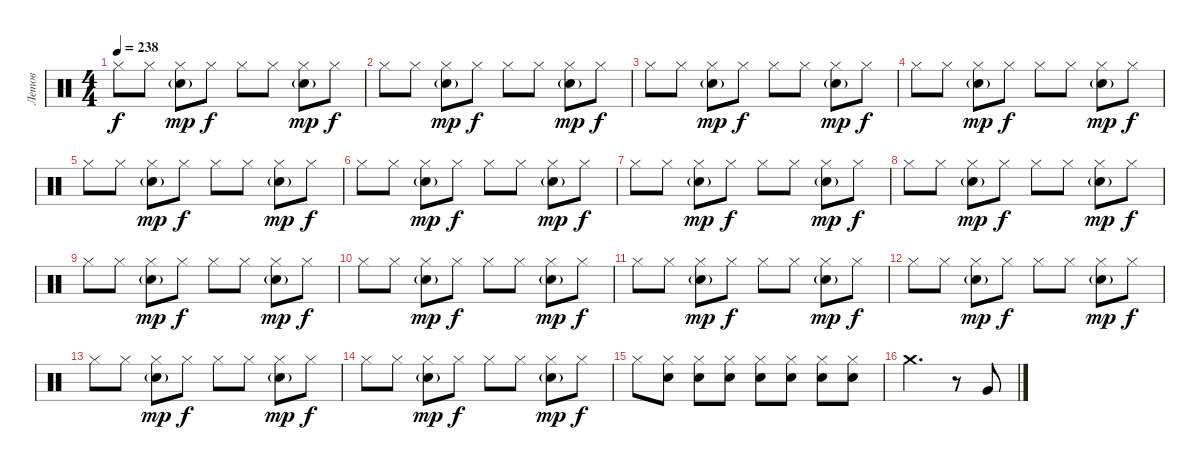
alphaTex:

\track ("Летов" "Летов") {instrument percussion}
\staff {score}
\articulation defaults
\ts (4 4)
\tempo 238
\clef neutral
\ks c "Hi-Hat (closed)".8{dy f} "Hi-Hat (closed)".8
("Hi-Hat (closed)" "Snare (hit) 2"{g}).8{dy mp} "Hi-Hat (closed)".8{dy f} "Hi-Hat (closed)".8 "Hi-Hat (closed)".8 ("Hi-Hat (closed)" "Snare (hit) 2"{g}).8{dy mp} "Hi-Hat (closed)".8{dy f} |
"Hi-Hat (closed)".8 "Hi-Hat (closed)".8 ("Hi-Hat (closed)" "Snare (hit) 2"{g}).8{dy mp} "Hi-Hat (closed)".8{dy f} "Hi-Hat (closed)".8 "Hi-Hat (closed)".8 ("Hi-Hat (closed)" "Snare (hit) 2"{g}).8{dy mp} "Hi-Hat (closed)".8{dy f} |
"Hi-Hat (closed)".8 "Hi-Hat (closed)".8 ("Hi-Hat (closed)" "Snare (hit) 2"{g}).8{dy mp} "Hi-Hat (closed)".8{dy f} "Hi-Hat (closed)".8 "Hi-Hat (closed)".8 ("Hi-Hat (closed)" "Snare (hit) 2"{g}).8{dy mp} "Hi-Hat (closed)".8{dy f} |
"Hi-Hat (closed)".8 "Hi-Hat (closed)".8 ("Hi-Hat (closed)" "Snare (hit) 2"{g}).8{dy mp} "Hi-Hat (closed)".8{dy f} "Hi-Hat (closed)".8 "Hi-Hat (closed)".8 ("Hi-Hat (closed)" "Snare (hit) 2"{g}).8{dy mp} "Hi-Hat (closed)".8{dy f} |
"Hi-Hat (closed)".8 "Hi-Hat (closed)".8 ("Hi-Hat (closed)" "Snare (hit) 2"{g}).8{dy mp} "Hi-Hat (closed)".8{dy f} "Hi-Hat (closed)".8 "Hi-Hat (closed)".8 ("Hi-Hat (closed)" "Snare (hit) 2"{g}).8{dy mp} "Hi-Hat (closed)".8{dy f} |
"Hi-Hat (closed)".8 "Hi-Hat (closed)".8 ("Hi-Hat (closed)" "Snare (hit) 2"{g}).8{dy mp} "Hi-Hat (closed)".8{dy f} "Hi-Hat (closed)".8 "Hi-Hat (closed)".8 ("Hi-Hat (closed)" "Snare (hit) 2"{g}).8{dy mp} "Hi-Hat (closed)".8{dy f} |
"Hi-Hat (closed)".8 "Hi-Hat (closed)".8 ("Hi-Hat (closed)" "Snare (hit) 2"{g}).8{dy mp} "Hi-Hat (closed)".8{dy f} "Hi-Hat (closed)".8 "Hi-Hat (closed)".8 ("Hi-Hat (closed)" "Snare (hit) 2"{g}).8{dy mp} "Hi-Hat (closed)".8{dy f} |
"Hi-Hat (closed)".8 "Hi-Hat (closed)".8 ("Hi-Hat (closed)" "Snare (hit) 2"{g}).8{dy mp} "Hi-Hat (closed)".8{dy f} "Hi-Hat (closed)".8 "Hi-Hat (closed)".8 ("Hi-Hat (closed)" "Snare (hit) 2"{g}).8{dy mp} "Hi-Hat (closed)".8{dy f} |
"Hi-Hat (closed)".8 "Hi-Hat (closed)".8 ("Hi-Hat (closed)" "Snare (hit) 2"{g}).8{dy mp} "Hi-Hat (closed)".8{dy f} "Hi-Hat (closed)".8 "Hi-Hat (closed)".8 ("Hi-Hat (closed)" "Snare (hit) 2"{g}).8{dy mp} "Hi-Hat (closed)".8{dy f} |
"Hi-Hat (closed)".8 "Hi-Hat (closed)".8 ("Hi-Hat (closed)" "Snare (hit) 2"{g}).8{dy mp} "Hi-Hat (closed)".8{dy f} "Hi-Hat (closed)".8 "Hi-Hat (closed)".8 ("Hi-Hat (closed)" "Snare (hit) 2"{g}).8{dy mp} "Hi-Hat (closed)".8{dy f} |
"Hi-Hat (closed)".8 "Hi-Hat (closed)".8 ("Hi-Hat (closed)" "Snare (hit) 2"{g}).8{dy mp} "Hi-Hat (closed)".8{dy f} "Hi-Hat (closed)".8 "Hi-Hat (closed)".8 ("Hi-Hat (closed)" "Snare (hit) 2"{g}).8{dy mp} "Hi-Hat (closed)".8{dy f} |
"Hi-Hat (closed)".8 "Hi-Hat (closed)".8 ("Hi-Hat (closed)" "Snare (hit) 2"{g}).8{dy mp} "Hi-Hat (closed)".8{dy f} "Hi-Hat (closed)".8 "Hi-Hat (closed)".8 ("Hi-Hat (closed)" "Snare (hit) 2"{g}).8{dy mp} "Hi-Hat (closed)".8{dy f} |
"Hi-Hat (closed)".8 "Hi-Hat (closed)".8 ("Hi-Hat (closed)" "Snare (hit) 2"{g}).8{dy mp} "Hi-Hat (closed)".8{dy f} "Hi-Hat (closed)".8 "Hi-Hat (closed)".8 ("Hi-Hat (closed)" "Snare (hit) 2"{g}).8{dy mp} "Hi-Hat (closed)".8{dy f} |
"Hi-Hat (closed)".8 "Hi-Hat (closed)".8 ("Hi-Hat (closed)" "Snare (hit) 2"{g}).8{dy mp} "Hi-Hat (closed)".8{dy f} "Hi-Hat (closed)".8 "Hi-Hat (closed)".8 ("Hi-Hat (closed)" "Snare (hit) 2"{g}).8{dy mp} "Hi-Hat (closed)".8{dy f} |
"Hi-Hat (closed)".8 ("Hi-Hat (closed)" "Snare (hit) 2").8 ("Hi-Hat (closed)" "Snare (hit) 2").8 ("Hi-Hat (closed)" "Snare (hit) 2").8 ("Hi-Hat (closed)" "Snare (hit) 2").8 ("Hi-Hat (closed)" "Snare (hit) 2").8 ("Hi-Hat (closed)" "Snare (hit) 2").8 ("Hi-Hat (closed)" "Snare (hit) 2").8 |
"Crash medium (hit)".2{d} r.8 "Very Low Tom (hit)".8
